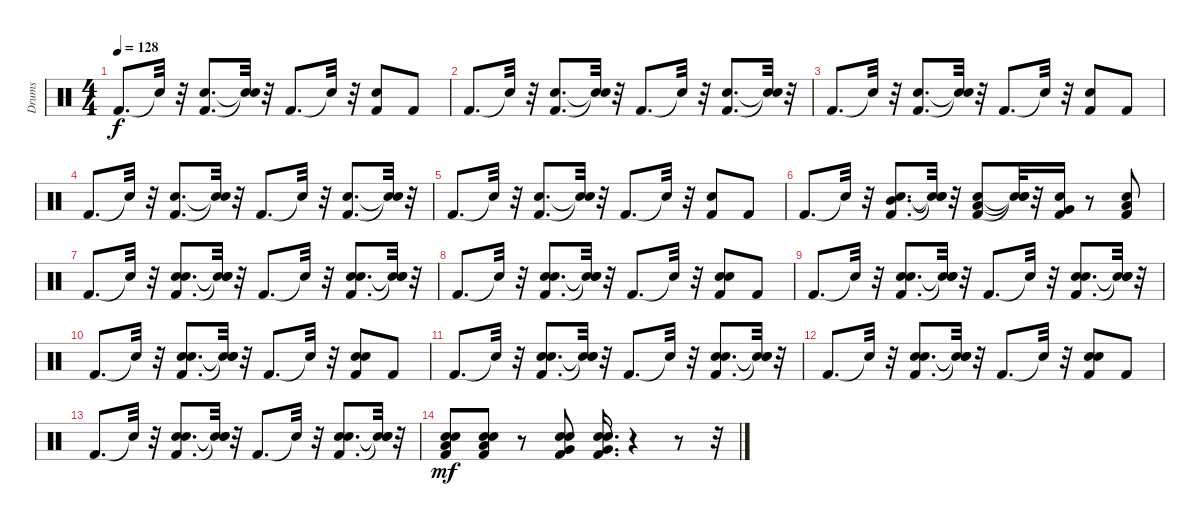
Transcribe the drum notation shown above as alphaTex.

\track ("Drums" "Drums") {instrument percussion}
\staff {score}
\articulation defaults
\ts (4 4)
\tempo 128
\clef neutral
\ks c "Kick (hit) 2".8{d dy f} "Snare (hit)"{t}.32
r.32 ("Kick (hit) 2" "Snare (hit) 2").8{d} ("Snare (hit)"{t} "Snare (hit)"{t}).32 r.32 "Kick (hit) 2".8{d} "Snare (hit)"{t}.32 r.32 ("Snare (hit) 2" "Kick (hit) 2").8 "Kick (hit) 2".8 |
"Kick (hit) 2".8{d} "Snare (hit)"{t}.32 r.32 ("Kick (hit) 2" "Snare (hit) 2").8{d} ("Snare (hit)"{t} "Snare (hit)"{t}).32 r.32 "Kick (hit) 2".8{d} "Snare (hit)"{t}.32 r.32 ("Snare (hit) 2" "Kick (hit) 2").8{d} ("Snare (hit)"{t} "Snare (hit)"{t}).32 r.32 |
"Kick (hit) 2".8{d} "Snare (hit)"{t}.32 r.32 ("Snare (hit) 2" "Kick (hit) 2").8{d} ("Snare (hit)"{t} "Snare (hit)"{t}).32 r.32 "Kick (hit) 2".8{d} "Snare (hit)"{t}.32 r.32 ("Kick (hit) 2" "Snare (hit) 2").8 "Kick (hit) 2".8 |
"Kick (hit) 2".8{d} "Snare (hit)"{t}.32 r.32 ("Kick (hit) 2" "Snare (hit) 2").8{d} ("Snare (hit)"{t} "Snare (hit)"{t}).32 r.32 "Kick (hit) 2".8{d} "Snare (hit)"{t}.32 r.32 ("Snare (hit) 2" "Kick (hit) 2").8{d} ("Snare (hit)"{t} "Snare (hit)"{t}).32 r.32 |
"Kick (hit) 2".8{d} "Snare (hit)"{t}.32 r.32 ("Kick (hit) 2" "Snare (hit) 2").8{d} ("Snare (hit)"{t} "Snare (hit)"{t}).32 r.32 "Kick (hit) 2".8{d} "Snare (hit)"{t}.32 r.32 ("Kick (hit) 2" "Snare (hit) 2").8 "Kick (hit) 2".8 |
"Kick (hit) 2".8{d} "Snare (hit)"{t}.32 r.32 ("Mid Tom (hit)" "Kick (hit) 2" "Snare (hit) 2").8{d} ("Snare (hit)"{t} "Snare (hit)"{t} "Snare (hit)"{t}).32 r.32 ("Kick (hit) 2" "Low Tom (hit)" "Snare (hit) 2").8 ("Snare (hit)"{t} "Snare (hit)"{t} "Snare (hit)"{t}).32 r.32 ("Snare (hit) 2" "Very Low Tom (hit)" "Kick (hit) 2").16 r.8 ("Snare (hit) 2" "Kick (hit) 2" "Low Floor Tom (hit)").8 |
"Kick (hit) 2".8{d} "Snare (hit)"{t}.32 r.32 ("Kick (hit) 2" "Hand Clap (hit)" "Snare (hit) 2").8{d} ("Snare (hit)"{t} "Snare (hit)"{t} "Snare (hit)"{t}).32 r.32 "Kick (hit) 2".8{d} "Snare (hit)"{t}.32 r.32 ("Snare (hit) 2" "Hand Clap (hit)" "Kick (hit) 2").8{d} ("Snare (hit)"{t} "Snare (hit)"{t} "Snare (hit)"{t}).32 r.32 |
"Kick (hit) 2".8{d} "Snare (hit)"{t}.32 r.32 ("Kick (hit) 2" "Snare (hit) 2" "Hand Clap (hit)").8{d} ("Snare (hit)"{t} "Snare (hit)"{t} "Snare (hit)"{t}).32 r.32 "Kick (hit) 2".8{d} "Snare (hit)"{t}.32 r.32 ("Hand Clap (hit)" "Snare (hit) 2" "Kick (hit) 2").8 "Kick (hit) 2".8 |
"Kick (hit) 2".8{d} "Snare (hit)"{t}.32 r.32 ("Kick (hit) 2" "Hand Clap (hit)" "Snare (hit) 2").8{d} ("Snare (hit)"{t} "Snare (hit)"{t} "Snare (hit)"{t}).32 r.32 "Kick (hit) 2".8{d} "Snare (hit)"{t}.32 r.32 ("Snare (hit) 2" "Hand Clap (hit)" "Kick (hit) 2").8{d} ("Snare (hit)"{t} "Snare (hit)"{t} "Snare (hit)"{t}).32 r.32 |
"Kick (hit) 2".8{d} "Snare (hit)"{t}.32 r.32 ("Kick (hit) 2" "Snare (hit) 2" "Hand Clap (hit)").8{d} ("Snare (hit)"{t} "Snare (hit)"{t} "Snare (hit)"{t}).32 r.32 "Kick (hit) 2".8{d} "Snare (hit)"{t}.32 r.32 ("Hand Clap (hit)" "Snare (hit) 2" "Kick (hit) 2").8 "Kick (hit) 2".8 |
"Kick (hit) 2".8{d} "Snare (hit)"{t}.32 r.32 ("Kick (hit) 2" "Hand Clap (hit)" "Snare (hit) 2").8{d} ("Snare (hit)"{t} "Snare (hit)"{t} "Snare (hit)"{t}).32 r.32 "Kick (hit) 2".8{d} "Snare (hit)"{t}.32 r.32 ("Snare (hit) 2" "Hand Clap (hit)" "Kick (hit) 2").8{d} ("Snare (hit)"{t} "Snare (hit)"{t} "Snare (hit)"{t}).32 r.32 |
"Kick (hit) 2".8{d} "Snare (hit)"{t}.32 r.32 ("Kick (hit) 2" "Snare (hit) 2" "Hand Clap (hit)").8{d} ("Snare (hit)"{t} "Snare (hit)"{t} "Snare (hit)"{t}).32 r.32 "Kick (hit) 2".8{d} "Snare (hit)"{t}.32 r.32 ("Hand Clap (hit)" "Snare (hit) 2" "Kick (hit) 2").8 "Kick (hit) 2".8 |
"Kick (hit) 2".8{d} "Snare (hit)"{t}.32 r.32 ("Hand Clap (hit)" "Kick (hit) 2" "Snare (hit) 2").8{d} ("Snare (hit)"{t} "Snare (hit)"{t} "Snare (hit)"{t}).32 r.32 "Kick (hit) 2".8{d} "Snare (hit)"{t}.32 r.32 ("Hand Clap (hit)" "Kick (hit) 2" "Snare (hit) 2").8{d} ("Snare (hit)"{t} "Snare (hit)"{t} "Snare (hit)"{t}).32 r.32 |
("Hand Clap (hit)" "Low Tom (hit)" "Snare (hit) 2" "Kick (hit) 2").8{dy mf} ("Hand Clap (hit)" "Low Tom (hit)" "Kick (hit) 2" "Snare (hit) 2").8 r.8 ("Kick (hit) 2" "Very Low Tom (hit)" "Hand Clap (hit)" "Snare (hit) 2").8 ("Very Low Tom (hit)" "Kick (hit) 2" "Snare (hit) 2" "Hand Clap (hit)").16{d} r.4 r.8 r.32
